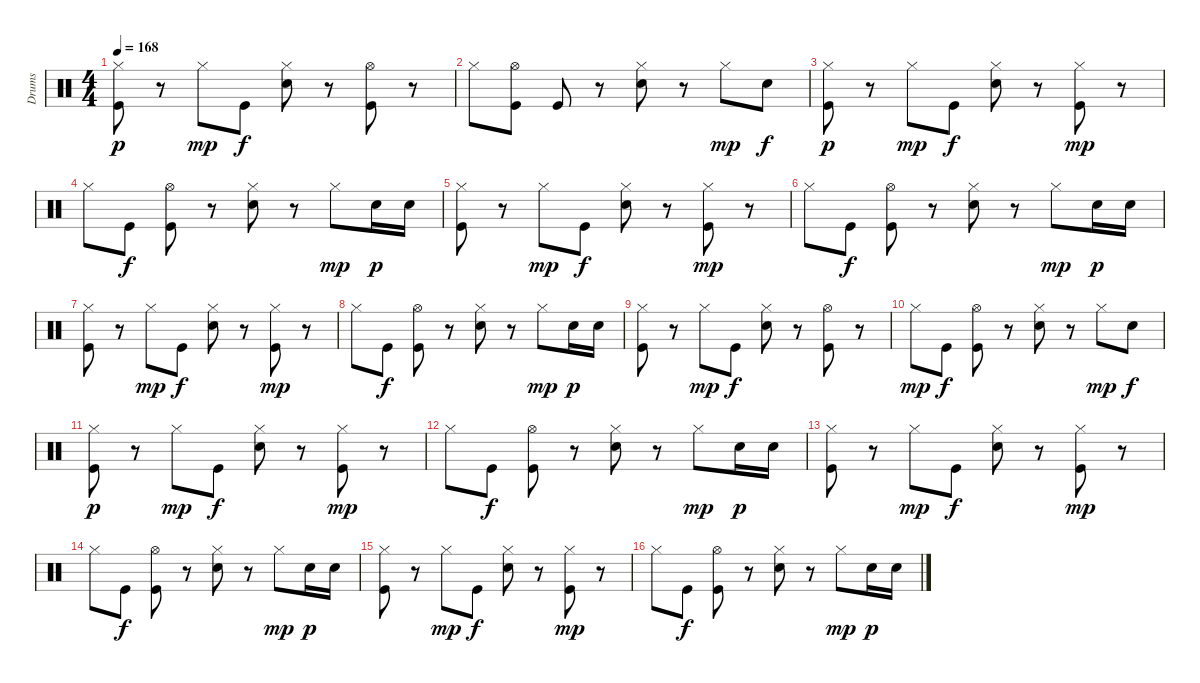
\track ("Drums" "Drums") {instrument percussion}
\staff {score}
\articulation defaults
\ts (4 4)
\tempo 168
\clef neutral
\ks c
("Hi-Hat (closed)" "Kick (hit)").8{dy p} r.8 "Hi-Hat (closed)".8{dy mp} "Kick (hit)".8{dy f} ("Hi-Hat (closed)" "Electric Snare (hit)").8 r.8 ("Hi-Hat (open)" "Kick (hit)").8 r.8 |
"Hi-Hat (closed)".8 ("Hi-Hat (open)" "Kick (hit)").8 "Kick (hit)".8 r.8 ("Hi-Hat (closed)" "Electric Snare (hit)").8 r.8 "Hi-Hat (closed)".8{dy mp} "Electric Snare (hit)".8{dy f} |
("Hi-Hat (closed)" "Kick (hit)").8{dy p} r.8 "Hi-Hat (closed)".8{dy mp} "Kick (hit)".8{dy f} ("Hi-Hat (closed)" "Electric Snare (hit)").8 r.8 ("Hi-Hat (closed)" "Kick (hit)").8{dy mp} r.8 |
"Hi-Hat (closed)".8 "Kick (hit)".8{dy f} ("Hi-Hat (open)" "Kick (hit)").8 r.8 ("Hi-Hat (closed)" "Electric Snare (hit)").8 r.8 "Hi-Hat (closed)".8{dy mp} "Electric Snare (hit)".16{dy p} "Electric Snare (hit)".16 |
("Hi-Hat (closed)" "Kick (hit)").8 r.8 "Hi-Hat (closed)".8{dy mp} "Kick (hit)".8{dy f} ("Hi-Hat (closed)" "Electric Snare (hit)").8 r.8 ("Hi-Hat (closed)" "Kick (hit)").8{dy mp} r.8 |
"Hi-Hat (closed)".8 "Kick (hit)".8{dy f} ("Hi-Hat (open)" "Kick (hit)").8 r.8 ("Hi-Hat (closed)" "Electric Snare (hit)").8 r.8 "Hi-Hat (closed)".8{dy mp} "Electric Snare (hit)".16{dy p} "Electric Snare (hit)".16 |
("Hi-Hat (closed)" "Kick (hit)").8 r.8 "Hi-Hat (closed)".8{dy mp} "Kick (hit)".8{dy f} ("Hi-Hat (closed)" "Electric Snare (hit)").8 r.8 ("Hi-Hat (closed)" "Kick (hit)").8{dy mp} r.8 |
"Hi-Hat (closed)".8 "Kick (hit)".8{dy f} ("Hi-Hat (open)" "Kick (hit)").8 r.8 ("Hi-Hat (closed)" "Electric Snare (hit)").8 r.8 "Hi-Hat (closed)".8{dy mp} "Electric Snare (hit)".16{dy p} "Electric Snare (hit)".16 |
("Hi-Hat (closed)" "Kick (hit)").8 r.8 "Hi-Hat (closed)".8{dy mp} "Kick (hit)".8{dy f} ("Hi-Hat (closed)" "Electric Snare (hit)").8 r.8 ("Hi-Hat (open)" "Kick (hit)").8 r.8 |
"Hi-Hat (closed)".8{dy mp} "Kick (hit)".8{dy f} ("Hi-Hat (open)" "Kick (hit)").8 r.8 ("Hi-Hat (closed)" "Electric Snare (hit)").8 r.8 "Hi-Hat (closed)".8{dy mp} "Electric Snare (hit)".8{dy f} |
("Hi-Hat (closed)" "Kick (hit)").8{dy p} r.8 "Hi-Hat (closed)".8{dy mp} "Kick (hit)".8{dy f} ("Hi-Hat (closed)" "Electric Snare (hit)").8 r.8 ("Hi-Hat (closed)" "Kick (hit)").8{dy mp} r.8 |
"Hi-Hat (closed)".8 "Kick (hit)".8{dy f} ("Hi-Hat (open)" "Kick (hit)").8 r.8 ("Hi-Hat (closed)" "Electric Snare (hit)").8 r.8 "Hi-Hat (closed)".8{dy mp} "Electric Snare (hit)".16{dy p} "Electric Snare (hit)".16 |
("Hi-Hat (closed)" "Kick (hit)").8 r.8 "Hi-Hat (closed)".8{dy mp} "Kick (hit)".8{dy f} ("Hi-Hat (closed)" "Electric Snare (hit)").8 r.8 ("Hi-Hat (closed)" "Kick (hit)").8{dy mp} r.8 |
"Hi-Hat (closed)".8 "Kick (hit)".8{dy f} ("Hi-Hat (open)" "Kick (hit)").8 r.8 ("Hi-Hat (closed)" "Electric Snare (hit)").8 r.8 "Hi-Hat (closed)".8{dy mp} "Electric Snare (hit)".16{dy p} "Electric Snare (hit)".16 |
("Hi-Hat (closed)" "Kick (hit)").8 r.8 "Hi-Hat (closed)".8{dy mp} "Kick (hit)".8{dy f} ("Hi-Hat (closed)" "Electric Snare (hit)").8 r.8 ("Hi-Hat (closed)" "Kick (hit)").8{dy mp} r.8 |
"Hi-Hat (closed)".8 "Kick (hit)".8{dy f} ("Hi-Hat (open)" "Kick (hit)").8 r.8 ("Hi-Hat (closed)" "Electric Snare (hit)").8 r.8 "Hi-Hat (closed)".8{dy mp} "Electric Snare (hit)".16{dy p} "Electric Snare (hit)".16
